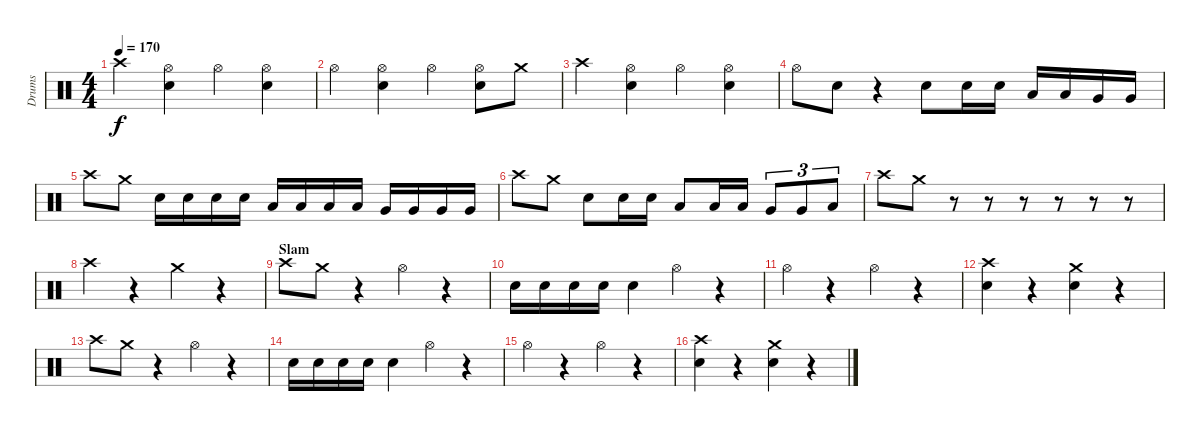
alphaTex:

\track ("Drums" "Drums") {instrument percussion}
\staff {score}
\articulation defaults
\ts (4 4)
\tempo 170
\clef neutral
\ks c "Crash high (hit)".4{dy f}
("Hi-Hat (open)" "Electric Snare (hit)").4 "Hi-Hat (open)".4 ("Hi-Hat (open)" "Electric Snare (hit)").4 |
"Hi-Hat (open)".4 ("Hi-Hat (open)" "Electric Snare (hit)").4 "Hi-Hat (open)".4 ("Hi-Hat (open)" "Electric Snare (hit)").8 "Crash medium (hit)".8 |
"Crash high (hit)".4 ("Hi-Hat (open)" "Electric Snare (hit)").4 "Hi-Hat (open)".4 ("Hi-Hat (open)" "Electric Snare (hit)").4 |
"Hi-Hat (open)".8 "Electric Snare (hit)".8 r.4 "Electric Snare (hit)".8 "Electric Snare (hit)".16 "Electric Snare (hit)".16 "Low Tom (hit)".16 "Low Tom (hit)".16 "Very Low Tom (hit)".16 "Very Low Tom (hit)".16 |
"Crash high (hit)".8 "Crash medium (hit)".8 "Electric Snare (hit)".16 "Electric Snare (hit)".16 "Electric Snare (hit)".16 "Electric Snare (hit)".16 "Low Tom (hit)".16 "Low Tom (hit)".16 "Low Tom (hit)".16 "Low Tom (hit)".16 "Very Low Tom (hit)".16 "Very Low Tom (hit)".16 "Very Low Tom (hit)".16 "Very Low Tom (hit)".16 |
"Crash high (hit)".8 "Crash medium (hit)".8 "Electric Snare (hit)".8 "Electric Snare (hit)".16 "Electric Snare (hit)".16 "Low Tom (hit)".8 "Low Tom (hit)".16 "Low Tom (hit)".16 "Very Low Tom (hit)".8{tu (3 2)} "Very Low Tom (hit)".8{tu (3 2)} "Low Floor Tom (hit)".8{tu (3 2)} |
"Crash high (hit)".8 "Crash medium (hit)".8 r.8 r.8 r.8 r.8 r.8 r.8 |
"Crash high (hit)".4 r.4 "Crash medium (hit)".4 r.4 |
\section ("" "Slam")
"Crash high (hit)".8 "Crash medium (hit)".8 r.4 "Hi-Hat (open)".4 r.4 |
"Electric Snare (hit)".16 "Electric Snare (hit)".16 "Electric Snare (hit)".16 "Electric Snare (hit)".16 "Electric Snare (hit)".4 "Hi-Hat (open)".4 r.4 |
"Hi-Hat (open)".4 r.4 "Hi-Hat (open)".4 r.4 |
("Crash high (hit)" "Electric Snare (hit)").4 r.4 ("Crash medium (hit)" "Electric Snare (hit)").4 r.4 |
"Crash high (hit)".8 "Crash medium (hit)".8 r.4 "Hi-Hat (open)".4 r.4 |
"Electric Snare (hit)".16 "Electric Snare (hit)".16 "Electric Snare (hit)".16 "Electric Snare (hit)".16 "Electric Snare (hit)".4 "Hi-Hat (open)".4 r.4 |
"Hi-Hat (open)".4 r.4 "Hi-Hat (open)".4 r.4 |
("Crash high (hit)" "Electric Snare (hit)").4 r.4 ("Crash medium (hit)" "Electric Snare (hit)").4 r.4
